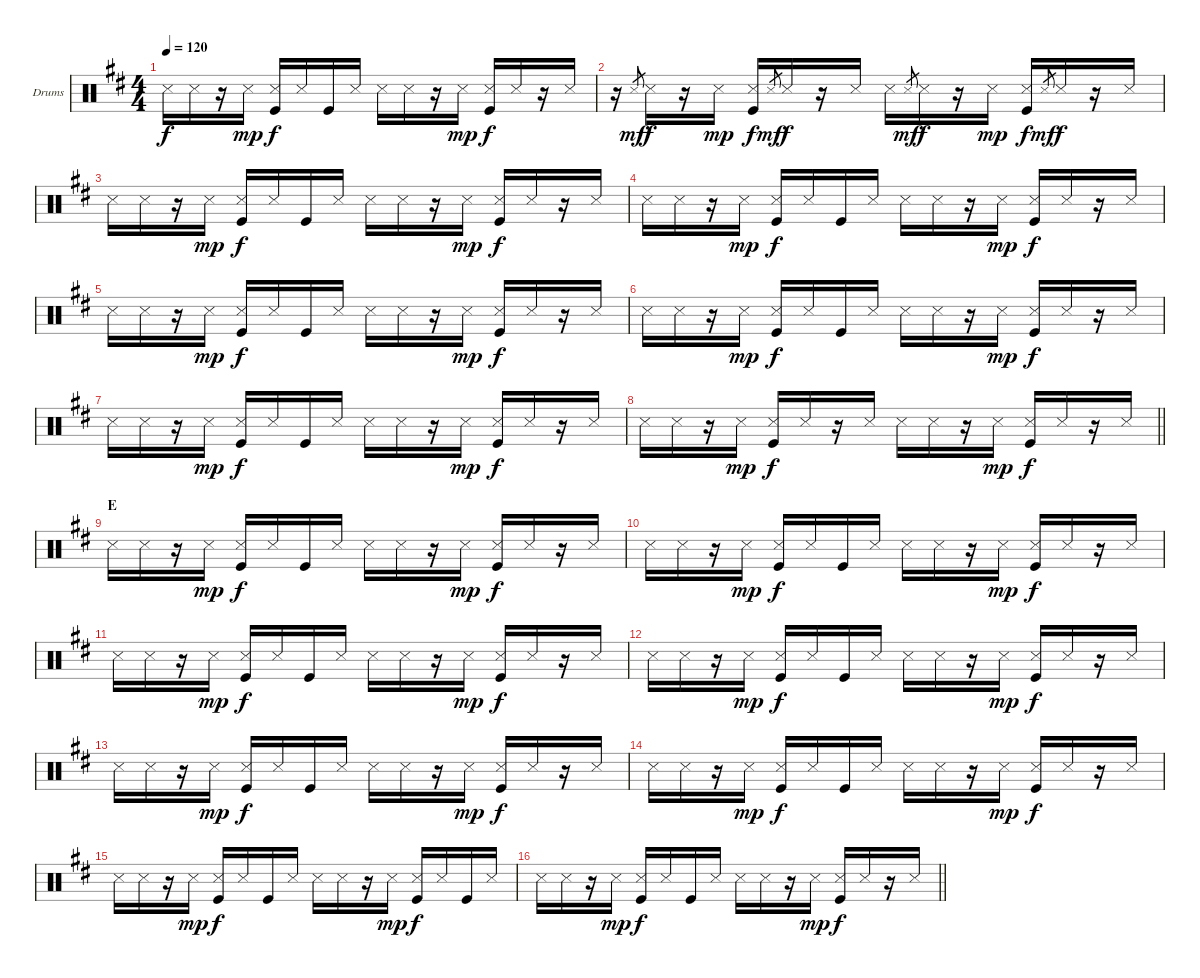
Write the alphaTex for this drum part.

\bracketExtendMode groupsimilarinstruments
\firstSystemTrackNameOrientation horizontal
\otherSystemsTrackNameOrientation horizontal
\track ("Drumkit" "Drums") {instrument percussion}
\staff {score}
\articulation defaults
\ts (4 4)
\tempo 120
\clef neutral
\ks d "Snare (side stick) 3".16{dy f} "Snare (side stick) 3".16
r.16 "Snare (side stick) 3".16{dy mp} ("Snare (side stick) 3" "Kick (hit)").16{dy f} "Snare (side stick) 3".16 "Kick (hit)".16 "Snare (side stick) 3".16 "Snare (side stick) 3".16 "Snare (side stick) 3".16 r.16 "Snare (side stick) 3".16{dy mp} ("Snare (side stick) 3" "Kick (hit)").16{dy f} "Snare (side stick) 3".16 r.16 "Snare (side stick) 3".16 |
r.16 "Snare (side stick) 3".8{gr dy mf} "Snare (side stick) 3".16{dy f} r.16 "Snare (side stick) 3".16{dy mp} ("Snare (side stick) 3" "Kick (hit)").16{dy f} "Snare (side stick) 3".8{gr dy mf} "Snare (side stick) 3".16{dy f} r.16 "Snare (side stick) 3".16 "Snare (side stick) 3".16 "Snare (side stick) 3".8{gr dy mf} "Snare (side stick) 3".16{dy f} r.16 "Snare (side stick) 3".16{dy mp} ("Snare (side stick) 3" "Kick (hit)").16{dy f} "Snare (side stick) 3".8{gr dy mf} "Snare (side stick) 3".16{dy f} r.16 "Snare (side stick) 3".16 |
"Snare (side stick) 3".16 "Snare (side stick) 3".16 r.16 "Snare (side stick) 3".16{dy mp} ("Snare (side stick) 3" "Kick (hit)").16{dy f} "Snare (side stick) 3".16 "Kick (hit)".16 "Snare (side stick) 3".16 "Snare (side stick) 3".16 "Snare (side stick) 3".16 r.16 "Snare (side stick) 3".16{dy mp} ("Snare (side stick) 3" "Kick (hit)").16{dy f} "Snare (side stick) 3".16 r.16 "Snare (side stick) 3".16 |
"Snare (side stick) 3".16 "Snare (side stick) 3".16 r.16 "Snare (side stick) 3".16{dy mp} ("Snare (side stick) 3" "Kick (hit)").16{dy f} "Snare (side stick) 3".16 "Kick (hit)".16 "Snare (side stick) 3".16 "Snare (side stick) 3".16 "Snare (side stick) 3".16 r.16 "Snare (side stick) 3".16{dy mp} ("Snare (side stick) 3" "Kick (hit)").16{dy f} "Snare (side stick) 3".16 r.16 "Snare (side stick) 3".16 |
"Snare (side stick) 3".16 "Snare (side stick) 3".16 r.16 "Snare (side stick) 3".16{dy mp} ("Snare (side stick) 3" "Kick (hit)").16{dy f} "Snare (side stick) 3".16 "Kick (hit)".16 "Snare (side stick) 3".16 "Snare (side stick) 3".16 "Snare (side stick) 3".16 r.16 "Snare (side stick) 3".16{dy mp} ("Snare (side stick) 3" "Kick (hit)").16{dy f} "Snare (side stick) 3".16 r.16 "Snare (side stick) 3".16 |
"Snare (side stick) 3".16 "Snare (side stick) 3".16 r.16 "Snare (side stick) 3".16{dy mp} ("Snare (side stick) 3" "Kick (hit)").16{dy f} "Snare (side stick) 3".16 "Kick (hit)".16 "Snare (side stick) 3".16 "Snare (side stick) 3".16 "Snare (side stick) 3".16 r.16 "Snare (side stick) 3".16{dy mp} ("Snare (side stick) 3" "Kick (hit)").16{dy f} "Snare (side stick) 3".16 r.16 "Snare (side stick) 3".16 |
"Snare (side stick) 3".16 "Snare (side stick) 3".16 r.16 "Snare (side stick) 3".16{dy mp} ("Snare (side stick) 3" "Kick (hit)").16{dy f} "Snare (side stick) 3".16 "Kick (hit)".16 "Snare (side stick) 3".16 "Snare (side stick) 3".16 "Snare (side stick) 3".16 r.16 "Snare (side stick) 3".16{dy mp} ("Snare (side stick) 3" "Kick (hit)").16{dy f} "Snare (side stick) 3".16 r.16 "Snare (side stick) 3".16 |
\barLineRight lightlight "Snare (side stick) 3".16 "Snare (side stick) 3".16
r.16 "Snare (side stick) 3".16{dy mp} ("Snare (side stick) 3" "Kick (hit)").16{dy f} "Snare (side stick) 3".16 r.16 "Snare (side stick) 3".16 "Snare (side stick) 3".16 "Snare (side stick) 3".16 r.16 "Snare (side stick) 3".16{dy mp} ("Snare (side stick) 3" "Kick (hit)").16{dy f} "Snare (side stick) 3".16 r.16 "Snare (side stick) 3".16 |
\section ("" "E")
"Snare (side stick) 3".16 "Snare (side stick) 3".16 r.16 "Snare (side stick) 3".16{dy mp} ("Snare (side stick) 3" "Kick (hit)").16{dy f} "Snare (side stick) 3".16 "Kick (hit)".16 "Snare (side stick) 3".16 "Snare (side stick) 3".16 "Snare (side stick) 3".16 r.16 "Snare (side stick) 3".16{dy mp} ("Snare (side stick) 3" "Kick (hit)").16{dy f} "Snare (side stick) 3".16 r.16 "Snare (side stick) 3".16 |
"Snare (side stick) 3".16 "Snare (side stick) 3".16 r.16 "Snare (side stick) 3".16{dy mp} ("Snare (side stick) 3" "Kick (hit)").16{dy f} "Snare (side stick) 3".16 "Kick (hit)".16 "Snare (side stick) 3".16 "Snare (side stick) 3".16 "Snare (side stick) 3".16 r.16 "Snare (side stick) 3".16{dy mp} ("Snare (side stick) 3" "Kick (hit)").16{dy f} "Snare (side stick) 3".16 r.16 "Snare (side stick) 3".16 |
"Snare (side stick) 3".16 "Snare (side stick) 3".16 r.16 "Snare (side stick) 3".16{dy mp} ("Snare (side stick) 3" "Kick (hit)").16{dy f} "Snare (side stick) 3".16 "Kick (hit)".16 "Snare (side stick) 3".16 "Snare (side stick) 3".16 "Snare (side stick) 3".16 r.16 "Snare (side stick) 3".16{dy mp} ("Snare (side stick) 3" "Kick (hit)").16{dy f} "Snare (side stick) 3".16 r.16 "Snare (side stick) 3".16 |
"Snare (side stick) 3".16 "Snare (side stick) 3".16 r.16 "Snare (side stick) 3".16{dy mp} ("Snare (side stick) 3" "Kick (hit)").16{dy f} "Snare (side stick) 3".16 "Kick (hit)".16 "Snare (side stick) 3".16 "Snare (side stick) 3".16 "Snare (side stick) 3".16 r.16 "Snare (side stick) 3".16{dy mp} ("Snare (side stick) 3" "Kick (hit)").16{dy f} "Snare (side stick) 3".16 r.16 "Snare (side stick) 3".16 |
"Snare (side stick) 3".16 "Snare (side stick) 3".16 r.16 "Snare (side stick) 3".16{dy mp} ("Snare (side stick) 3" "Kick (hit)").16{dy f} "Snare (side stick) 3".16 "Kick (hit)".16 "Snare (side stick) 3".16 "Snare (side stick) 3".16 "Snare (side stick) 3".16 r.16 "Snare (side stick) 3".16{dy mp} ("Snare (side stick) 3" "Kick (hit)").16{dy f} "Snare (side stick) 3".16 r.16 "Snare (side stick) 3".16 |
"Snare (side stick) 3".16 "Snare (side stick) 3".16 r.16 "Snare (side stick) 3".16{dy mp} ("Snare (side stick) 3" "Kick (hit)").16{dy f} "Snare (side stick) 3".16 "Kick (hit)".16 "Snare (side stick) 3".16 "Snare (side stick) 3".16 "Snare (side stick) 3".16 r.16 "Snare (side stick) 3".16{dy mp} ("Snare (side stick) 3" "Kick (hit)").16{dy f} "Snare (side stick) 3".16 r.16 "Snare (side stick) 3".16 |
"Snare (side stick) 3".16 "Snare (side stick) 3".16 r.16 "Snare (side stick) 3".16{dy mp} ("Snare (side stick) 3" "Kick (hit)").16{dy f} "Snare (side stick) 3".16 "Kick (hit)".16 "Snare (side stick) 3".16 "Snare (side stick) 3".16 "Snare (side stick) 3".16 r.16 "Snare (side stick) 3".16{dy mp} ("Snare (side stick) 3" "Kick (hit)").16{dy f} "Snare (side stick) 3".16 "Kick (hit)".16 "Snare (side stick) 3".16 |
\barLineRight lightlight "Snare (side stick) 3".16 "Snare (side stick) 3".16
r.16 "Snare (side stick) 3".16{dy mp} ("Snare (side stick) 3" "Kick (hit)").16{dy f} "Snare (side stick) 3".16 "Kick (hit)".16 "Snare (side stick) 3".16 "Snare (side stick) 3".16 "Snare (side stick) 3".16 r.16 "Snare (side stick) 3".16{dy mp} ("Snare (side stick) 3" "Kick (hit)").16{dy f} "Snare (side stick) 3".16 r.16 "Snare (side stick) 3".16
